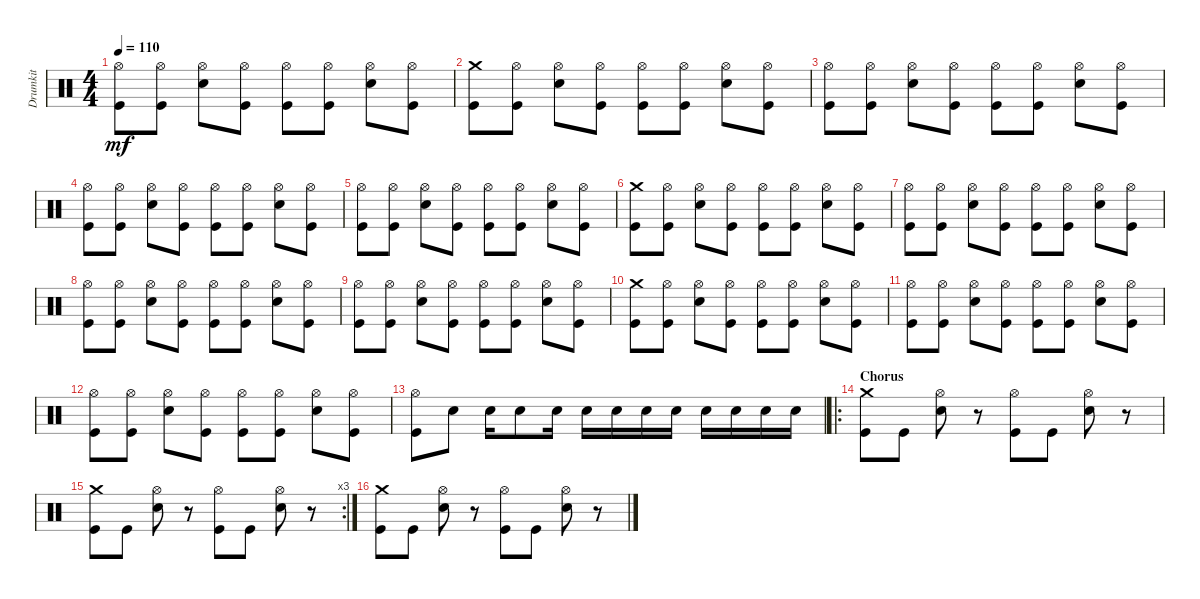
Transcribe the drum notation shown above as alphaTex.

\track ("Drumkit" "Drumkit") {instrument percussion}
\staff {score}
\articulation defaults
\ts (4 4)
\tempo 110
\clef neutral
\ks c
("Kick (hit)" "Hi-Hat (open)").8{dy mf} ("Kick (hit)" "Hi-Hat (open)").8 ("Hi-Hat (open)" "Snare (hit) 2").8 ("Kick (hit)" "Hi-Hat (open)").8 ("Kick (hit)" "Hi-Hat (open)").8 ("Kick (hit)" "Hi-Hat (open)").8 ("Hi-Hat (open)" "Snare (hit) 2").8 ("Kick (hit)" "Hi-Hat (open)").8 |
("Kick (hit)" "Crash medium (hit)").8 ("Kick (hit)" "Hi-Hat (open)").8 ("Hi-Hat (open)" "Snare (hit) 2").8 ("Kick (hit)" "Hi-Hat (open)").8 ("Kick (hit)" "Hi-Hat (open)").8 ("Kick (hit)" "Hi-Hat (open)").8 ("Hi-Hat (open)" "Snare (hit) 2").8 ("Kick (hit)" "Hi-Hat (open)").8 |
("Kick (hit)" "Hi-Hat (open)").8 ("Kick (hit)" "Hi-Hat (open)").8 ("Hi-Hat (open)" "Snare (hit) 2").8 ("Kick (hit)" "Hi-Hat (open)").8 ("Kick (hit)" "Hi-Hat (open)").8 ("Kick (hit)" "Hi-Hat (open)").8 ("Hi-Hat (open)" "Snare (hit) 2").8 ("Kick (hit)" "Hi-Hat (open)").8 |
("Kick (hit)" "Hi-Hat (open)").8 ("Kick (hit)" "Hi-Hat (open)").8 ("Hi-Hat (open)" "Snare (hit) 2").8 ("Kick (hit)" "Hi-Hat (open)").8 ("Kick (hit)" "Hi-Hat (open)").8 ("Kick (hit)" "Hi-Hat (open)").8 ("Hi-Hat (open)" "Snare (hit) 2").8 ("Kick (hit)" "Hi-Hat (open)").8 |
("Kick (hit)" "Hi-Hat (open)").8 ("Kick (hit)" "Hi-Hat (open)").8 ("Hi-Hat (open)" "Snare (hit) 2").8 ("Kick (hit)" "Hi-Hat (open)").8 ("Kick (hit)" "Hi-Hat (open)").8 ("Kick (hit)" "Hi-Hat (open)").8 ("Hi-Hat (open)" "Snare (hit) 2").8 ("Kick (hit)" "Hi-Hat (open)").8 |
("Kick (hit)" "Crash medium (hit)").8 ("Kick (hit)" "Hi-Hat (open)").8 ("Hi-Hat (open)" "Snare (hit) 2").8 ("Kick (hit)" "Hi-Hat (open)").8 ("Kick (hit)" "Hi-Hat (open)").8 ("Kick (hit)" "Hi-Hat (open)").8 ("Hi-Hat (open)" "Snare (hit) 2").8 ("Kick (hit)" "Hi-Hat (open)").8 |
("Kick (hit)" "Hi-Hat (open)").8 ("Kick (hit)" "Hi-Hat (open)").8 ("Hi-Hat (open)" "Snare (hit) 2").8 ("Kick (hit)" "Hi-Hat (open)").8 ("Kick (hit)" "Hi-Hat (open)").8 ("Kick (hit)" "Hi-Hat (open)").8 ("Hi-Hat (open)" "Snare (hit) 2").8 ("Kick (hit)" "Hi-Hat (open)").8 |
("Kick (hit)" "Hi-Hat (open)").8 ("Kick (hit)" "Hi-Hat (open)").8 ("Hi-Hat (open)" "Snare (hit) 2").8 ("Kick (hit)" "Hi-Hat (open)").8 ("Kick (hit)" "Hi-Hat (open)").8 ("Kick (hit)" "Hi-Hat (open)").8 ("Hi-Hat (open)" "Snare (hit) 2").8 ("Kick (hit)" "Hi-Hat (open)").8 |
("Kick (hit)" "Hi-Hat (open)").8 ("Kick (hit)" "Hi-Hat (open)").8 ("Hi-Hat (open)" "Snare (hit) 2").8 ("Kick (hit)" "Hi-Hat (open)").8 ("Kick (hit)" "Hi-Hat (open)").8 ("Kick (hit)" "Hi-Hat (open)").8 ("Hi-Hat (open)" "Snare (hit) 2").8 ("Kick (hit)" "Hi-Hat (open)").8 |
("Kick (hit)" "Crash medium (hit)").8 ("Kick (hit)" "Hi-Hat (open)").8 ("Hi-Hat (open)" "Snare (hit) 2").8 ("Kick (hit)" "Hi-Hat (open)").8 ("Kick (hit)" "Hi-Hat (open)").8 ("Kick (hit)" "Hi-Hat (open)").8 ("Hi-Hat (open)" "Snare (hit) 2").8 ("Kick (hit)" "Hi-Hat (open)").8 |
("Kick (hit)" "Hi-Hat (open)").8 ("Kick (hit)" "Hi-Hat (open)").8 ("Hi-Hat (open)" "Snare (hit) 2").8 ("Kick (hit)" "Hi-Hat (open)").8 ("Kick (hit)" "Hi-Hat (open)").8 ("Kick (hit)" "Hi-Hat (open)").8 ("Hi-Hat (open)" "Snare (hit) 2").8 ("Kick (hit)" "Hi-Hat (open)").8 |
("Kick (hit)" "Hi-Hat (open)").8 ("Kick (hit)" "Hi-Hat (open)").8 ("Hi-Hat (open)" "Snare (hit) 2").8 ("Kick (hit)" "Hi-Hat (open)").8 ("Kick (hit)" "Hi-Hat (open)").8 ("Kick (hit)" "Hi-Hat (open)").8 ("Hi-Hat (open)" "Snare (hit) 2").8 ("Kick (hit)" "Hi-Hat (open)").8 |
("Kick (hit)" "Hi-Hat (open)").8 "Snare (hit) 2".8 "Snare (hit) 2".16 "Snare (hit) 2".8 "Snare (hit) 2".16 "Snare (hit) 2".16 "Snare (hit) 2".16 "Snare (hit) 2".16 "Snare (hit) 2".16 "Snare (hit) 2".16 "Snare (hit) 2".16 "Snare (hit) 2".16 "Snare (hit) 2".16 |
\ro
\section ("" "Chorus")
("Crash medium (hit)" "Kick (hit)").8 "Kick (hit)".8 ("Snare (hit) 2" "Hi-Hat (open)").8 r.8 ("Hi-Hat (open)" "Kick (hit)").8 "Kick (hit)".8 ("Hi-Hat (open)" "Snare (hit) 2").8 r.8 |
\rc 3
("Crash medium (hit)" "Kick (hit)").8 "Kick (hit)".8 ("Snare (hit) 2" "Hi-Hat (open)").8 r.8 ("Hi-Hat (open)" "Kick (hit)").8 "Kick (hit)".8 ("Hi-Hat (open)" "Snare (hit) 2").8 r.8 |
("Crash medium (hit)" "Kick (hit)").8 "Kick (hit)".8 ("Snare (hit) 2" "Hi-Hat (open)").8 r.8 ("Hi-Hat (open)" "Kick (hit)").8 "Kick (hit)".8 ("Hi-Hat (open)" "Snare (hit) 2").8 r.8
